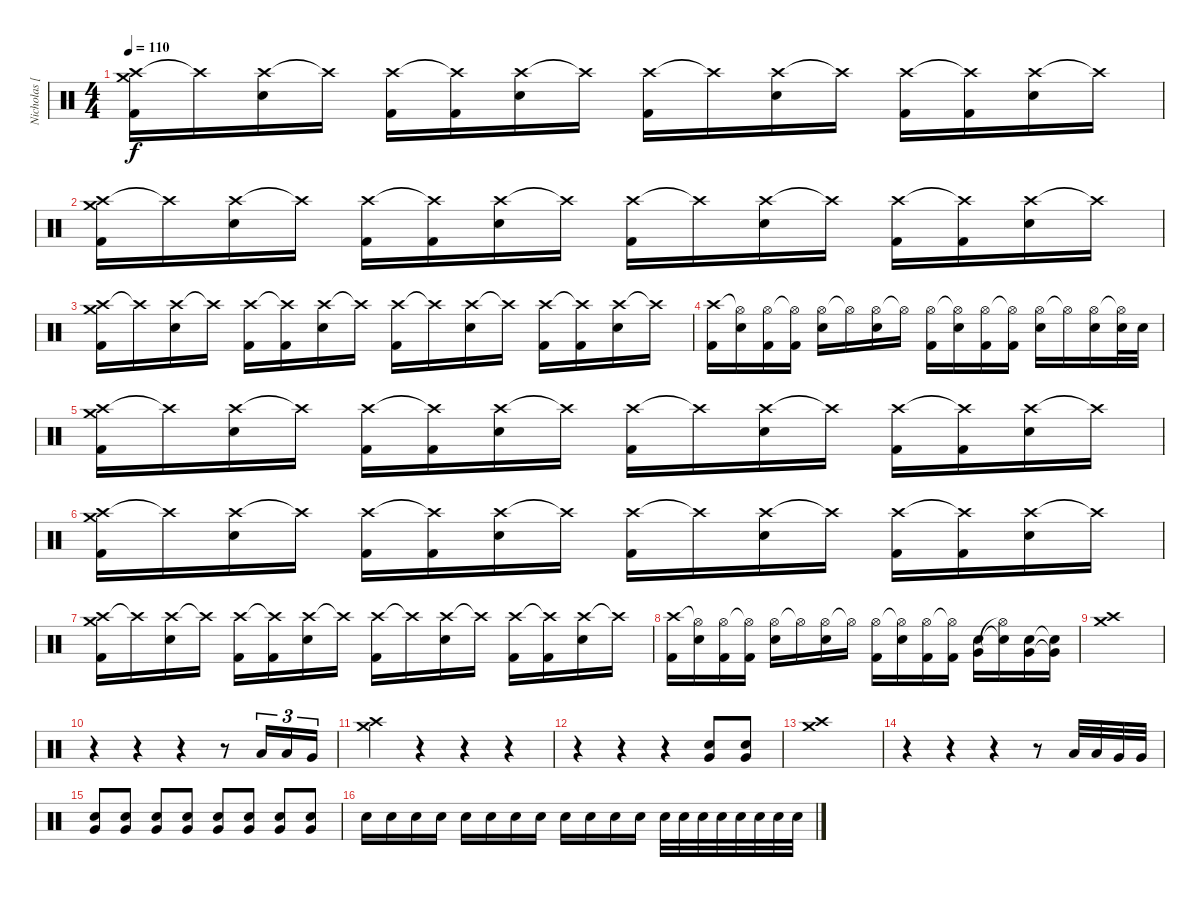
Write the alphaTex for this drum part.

\track ("Nicholas [Drums]" "Nicholas [") {instrument percussion}
\staff {score}
\articulation defaults
\ts (4 4)
\tempo 110
\clef neutral
\ks c
("Crash high (hit)" "Crash medium (hit)" "Kick (hit) 2").16{dy f} "Crash high (hit)"{t}.16 ("Crash high (hit)" "Snare (hit) 2").16 "Crash high (hit)"{t}.16 ("Crash high (hit)" "Kick (hit) 2").16 ("Crash high (hit)"{t} "Kick (hit) 2").16 ("Crash high (hit)" "Snare (hit) 2").16 "Crash high (hit)"{t}.16 ("Crash high (hit)" "Kick (hit) 2").16 "Crash high (hit)"{t}.16 ("Crash high (hit)" "Snare (hit) 2").16 "Crash high (hit)"{t}.16 ("Crash high (hit)" "Kick (hit) 2").16 ("Crash high (hit)"{t} "Kick (hit) 2").16 ("Crash high (hit)" "Snare (hit) 2").16 "Crash high (hit)"{t}.16 |
("Crash high (hit)" "Crash medium (hit)" "Kick (hit) 2").16 "Crash high (hit)"{t}.16 ("Crash high (hit)" "Snare (hit) 2").16 "Crash high (hit)"{t}.16 ("Crash high (hit)" "Kick (hit) 2").16 ("Crash high (hit)"{t} "Kick (hit) 2").16 ("Crash high (hit)" "Snare (hit) 2").16 "Crash high (hit)"{t}.16 ("Crash high (hit)" "Kick (hit) 2").16 "Crash high (hit)"{t}.16 ("Crash high (hit)" "Snare (hit) 2").16 "Crash high (hit)"{t}.16 ("Crash high (hit)" "Kick (hit) 2").16 ("Crash high (hit)"{t} "Kick (hit) 2").16 ("Crash high (hit)" "Snare (hit) 2").16 "Crash high (hit)"{t}.16 |
("Crash high (hit)" "Crash medium (hit)" "Kick (hit) 2").16 "Crash high (hit)"{t}.16 ("Crash high (hit)" "Snare (hit) 2").16 "Crash high (hit)"{t}.16 ("Crash high (hit)" "Kick (hit) 2").16 ("Crash high (hit)"{t} "Kick (hit) 2").16 ("Crash high (hit)" "Snare (hit) 2").16 "Crash high (hit)"{t}.16 ("Crash high (hit)" "Kick (hit) 2").16 "Crash high (hit)"{t}.16 ("Crash high (hit)" "Snare (hit) 2").16 "Crash high (hit)"{t}.16 ("Crash high (hit)" "Kick (hit) 2").16 ("Crash high (hit)"{t} "Kick (hit) 2").16 ("Crash high (hit)" "Snare (hit) 2").16 "Crash high (hit)"{t}.16 |
("Crash high (hit)" "Kick (hit) 2").16 ("Hi-Hat (open)"{t} "Snare (hit) 2").16 ("Hi-Hat (open)" "Kick (hit) 2").16 ("Hi-Hat (open)"{t} "Kick (hit) 2").16 ("Hi-Hat (open)" "Snare (hit) 2").16 "Hi-Hat (open)"{t}.16 ("Hi-Hat (open)" "Snare (hit) 2").16 "Hi-Hat (open)"{t}.16 ("Hi-Hat (open)" "Kick (hit) 2").16 ("Hi-Hat (open)"{t} "Snare (hit) 2").16 ("Hi-Hat (open)" "Kick (hit) 2").16 ("Hi-Hat (open)"{t} "Kick (hit) 2").16 ("Hi-Hat (open)" "Snare (hit) 2").16 "Hi-Hat (open)"{t}.16 ("Hi-Hat (open)" "Snare (hit) 2").16 ("Hi-Hat (open)"{t} "Snare (hit) 2").32 "Snare (hit) 2".32 |
("Crash high (hit)" "Crash medium (hit)" "Kick (hit) 2").16 "Crash high (hit)"{t}.16 ("Crash high (hit)" "Snare (hit) 2").16 "Crash high (hit)"{t}.16 ("Crash high (hit)" "Kick (hit) 2").16 ("Crash high (hit)"{t} "Kick (hit) 2").16 ("Crash high (hit)" "Snare (hit) 2").16 "Crash high (hit)"{t}.16 ("Crash high (hit)" "Kick (hit) 2").16 "Crash high (hit)"{t}.16 ("Crash high (hit)" "Snare (hit) 2").16 "Crash high (hit)"{t}.16 ("Crash high (hit)" "Kick (hit) 2").16 ("Crash high (hit)"{t} "Kick (hit) 2").16 ("Crash high (hit)" "Snare (hit) 2").16 "Crash high (hit)"{t}.16 |
("Crash high (hit)" "Crash medium (hit)" "Kick (hit) 2").16 "Crash high (hit)"{t}.16 ("Crash high (hit)" "Snare (hit) 2").16 "Crash high (hit)"{t}.16 ("Crash high (hit)" "Kick (hit) 2").16 ("Crash high (hit)"{t} "Kick (hit) 2").16 ("Crash high (hit)" "Snare (hit) 2").16 "Crash high (hit)"{t}.16 ("Crash high (hit)" "Kick (hit) 2").16 "Crash high (hit)"{t}.16 ("Crash high (hit)" "Snare (hit) 2").16 "Crash high (hit)"{t}.16 ("Crash high (hit)" "Kick (hit) 2").16 ("Crash high (hit)"{t} "Kick (hit) 2").16 ("Crash high (hit)" "Snare (hit) 2").16 "Crash high (hit)"{t}.16 |
("Crash high (hit)" "Crash medium (hit)" "Kick (hit) 2").16 "Crash high (hit)"{t}.16 ("Crash high (hit)" "Snare (hit) 2").16 "Crash high (hit)"{t}.16 ("Crash high (hit)" "Kick (hit) 2").16 ("Crash high (hit)"{t} "Kick (hit) 2").16 ("Crash high (hit)" "Snare (hit) 2").16 "Crash high (hit)"{t}.16 ("Crash high (hit)" "Kick (hit) 2").16 "Crash high (hit)"{t}.16 ("Crash high (hit)" "Snare (hit) 2").16 "Crash high (hit)"{t}.16 ("Crash high (hit)" "Kick (hit) 2").16 ("Crash high (hit)"{t} "Kick (hit) 2").16 ("Crash high (hit)" "Snare (hit) 2").16 "Crash high (hit)"{t}.16 |
("Crash high (hit)" "Kick (hit) 2").16 ("Hi-Hat (open)"{t} "Snare (hit) 2").16 ("Hi-Hat (open)" "Kick (hit) 2").16 ("Hi-Hat (open)"{t} "Kick (hit) 2").16 ("Hi-Hat (open)" "Snare (hit) 2").16 "Hi-Hat (open)"{t}.16 ("Hi-Hat (open)" "Snare (hit) 2").16 "Hi-Hat (open)"{t}.16 ("Hi-Hat (open)" "Kick (hit) 2").16 ("Hi-Hat (open)"{t} "Snare (hit) 2").16 ("Hi-Hat (open)" "Kick (hit) 2").16 ("Hi-Hat (open)"{t} "Kick (hit) 2").16 ("Very Low Tom (hit)" "Snare (hit) 2").16 ("Hi-Hat (open)"{t} "Snare (hit)"{t}).16 ("Very Low Tom (hit)" "Snare (hit) 2").16 ("Very Low Tom (hit)"{t} "Snare (hit) 2"{t}).16 |
("Crash high (hit)" "Crash medium (hit)").1 |
r.4 r.4 r.4 r.8 "Low Tom (hit)".16{tu (3 2)} "Low Tom (hit)".16{tu (3 2)} "Very Low Tom (hit)".16{tu (3 2)} |
("Crash high (hit)" "Crash medium (hit)").4 r.4 r.4 r.4 |
r.4 r.4 r.4 ("Very Low Tom (hit)" "Snare (hit) 2").8 ("Very Low Tom (hit)" "Snare (hit) 2").8 |
("Crash high (hit)" "Crash medium (hit)").1 |
r.4 r.4 r.4 r.8 "Low Tom (hit)".32 "Low Tom (hit)".32 "Very Low Tom (hit)".32 "Very Low Tom (hit)".32 |
("Very Low Tom (hit)" "Snare (hit) 2").8 ("Very Low Tom (hit)" "Snare (hit) 2").8 ("Very Low Tom (hit)" "Snare (hit) 2").8 ("Very Low Tom (hit)" "Snare (hit) 2").8 ("Very Low Tom (hit)" "Snare (hit) 2").8 ("Very Low Tom (hit)" "Snare (hit) 2").8 ("Very Low Tom (hit)" "Snare (hit) 2").8 ("Very Low Tom (hit)" "Snare (hit) 2").8 |
"Snare (hit) 2".16 "Snare (hit) 2".16 "Snare (hit) 2".16 "Snare (hit) 2".16 "Snare (hit) 2".16 "Snare (hit) 2".16 "Snare (hit) 2".16 "Snare (hit) 2".16 "Snare (hit) 2".16 "Snare (hit) 2".16 "Snare (hit) 2".16 "Snare (hit) 2".16 "Snare (hit) 2".32 "Snare (hit) 2".32 "Snare (hit) 2".32 "Snare (hit) 2".32 "Snare (hit) 2".32 "Snare (hit) 2".32 "Snare (hit) 2".32 "Snare (hit) 2".32
